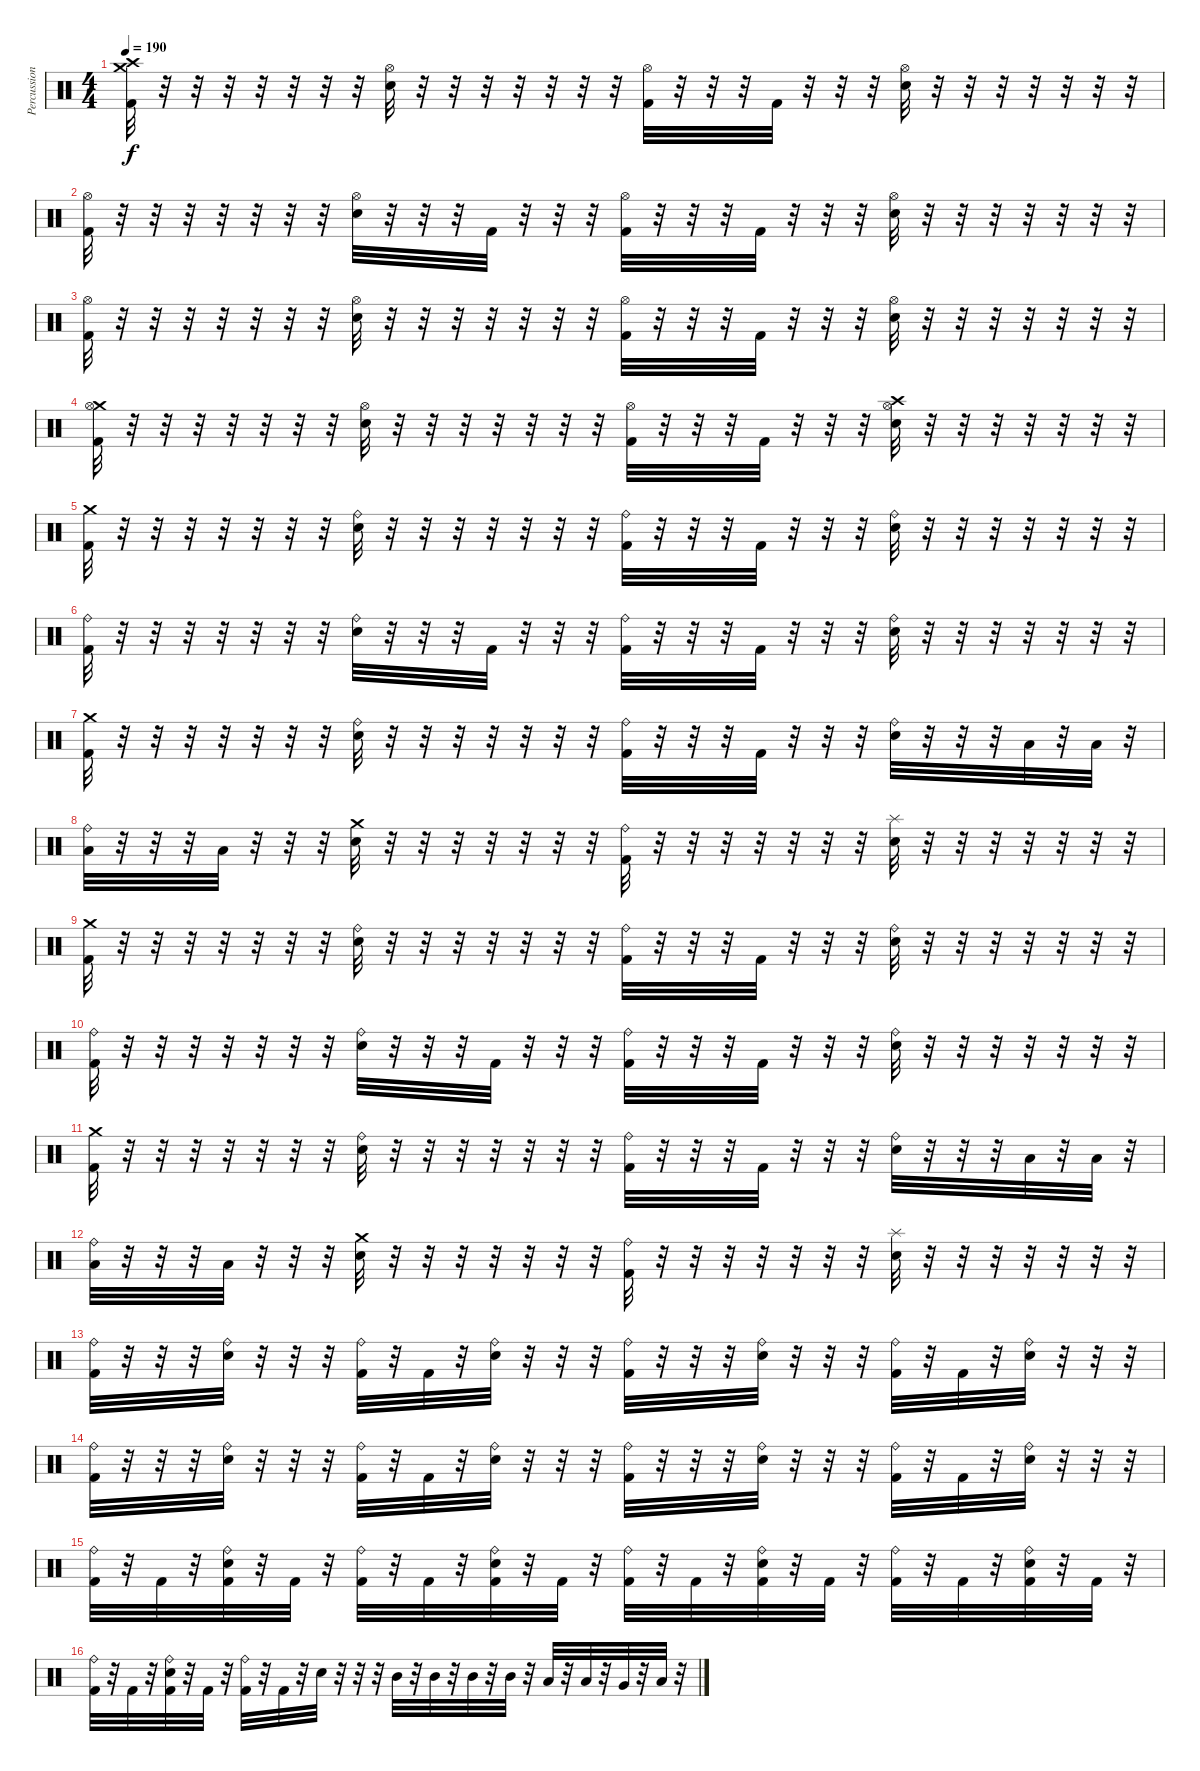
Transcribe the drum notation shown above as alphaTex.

\track ("Percussion" "Percussion") {instrument percussion}
\staff {score}
\articulation defaults
\ts (4 4)
\tempo 190
\clef neutral
\ks c
("Crash medium (hit)" "Crash high (hit)" "Kick (hit) 2").32{dy f} r.32 r.32 r.32 r.32 r.32 r.32 r.32 ("Hi-Hat (open)" "Electric Snare (hit)").32 r.32 r.32 r.32 r.32 r.32 r.32 r.32 ("Hi-Hat (open)" "Kick (hit) 2").32 r.32 r.32 r.32 "Kick (hit) 2".32 r.32 r.32 r.32 ("Hi-Hat (open)" "Electric Snare (hit)").32 r.32 r.32 r.32 r.32 r.32 r.32 r.32 |
("Hi-Hat (open)" "Kick (hit) 2").32 r.32 r.32 r.32 r.32 r.32 r.32 r.32 ("Hi-Hat (open)" "Electric Snare (hit)").32 r.32 r.32 r.32 "Kick (hit) 2".32 r.32 r.32 r.32 ("Hi-Hat (open)" "Kick (hit) 2").32 r.32 r.32 r.32 "Kick (hit) 2".32 r.32 r.32 r.32 ("Hi-Hat (open)" "Electric Snare (hit)").32 r.32 r.32 r.32 r.32 r.32 r.32 r.32 |
("Hi-Hat (open)" "Kick (hit) 2").32 r.32 r.32 r.32 r.32 r.32 r.32 r.32 ("Hi-Hat (open)" "Electric Snare (hit)").32 r.32 r.32 r.32 r.32 r.32 r.32 r.32 ("Hi-Hat (open)" "Kick (hit) 2").32 r.32 r.32 r.32 "Kick (hit) 2".32 r.32 r.32 r.32 ("Hi-Hat (open)" "Electric Snare (hit)").32 r.32 r.32 r.32 r.32 r.32 r.32 r.32 |
("Crash medium (hit)" "Hi-Hat (open)" "Kick (hit) 2").32 r.32 r.32 r.32 r.32 r.32 r.32 r.32 ("Hi-Hat (open)" "Electric Snare (hit)").32 r.32 r.32 r.32 r.32 r.32 r.32 r.32 ("Hi-Hat (open)" "Kick (hit) 2").32 r.32 r.32 r.32 "Kick (hit) 2".32 r.32 r.32 r.32 ("Crash high (hit)" "Hi-Hat (open)" "Electric Snare (hit)").32 r.32 r.32 r.32 r.32 r.32 r.32 r.32 |
("Crash medium (hit)" "Kick (hit) 2").32 r.32 r.32 r.32 r.32 r.32 r.32 r.32 ("Ride (bell)" "Electric Snare (hit)").32 r.32 r.32 r.32 r.32 r.32 r.32 r.32 ("Ride (bell)" "Kick (hit) 2").32 r.32 r.32 r.32 "Kick (hit) 2".32 r.32 r.32 r.32 ("Ride (bell)" "Electric Snare (hit)").32 r.32 r.32 r.32 r.32 r.32 r.32 r.32 |
("Ride (bell)" "Kick (hit) 2").32 r.32 r.32 r.32 r.32 r.32 r.32 r.32 ("Ride (bell)" "Electric Snare (hit)").32 r.32 r.32 r.32 "Kick (hit) 2".32 r.32 r.32 r.32 ("Ride (bell)" "Kick (hit) 2").32 r.32 r.32 r.32 "Kick (hit) 2".32 r.32 r.32 r.32 ("Ride (bell)" "Electric Snare (hit)").32 r.32 r.32 r.32 r.32 r.32 r.32 r.32 |
("Crash medium (hit)" "Kick (hit) 2").32 r.32 r.32 r.32 r.32 r.32 r.32 r.32 ("Ride (bell)" "Electric Snare (hit)").32 r.32 r.32 r.32 r.32 r.32 r.32 r.32 ("Ride (bell)" "Kick (hit) 2").32 r.32 r.32 r.32 "Kick (hit) 2".32 r.32 r.32 r.32 ("Ride (bell)" "Electric Snare (hit)").32 r.32 r.32 r.32 "Low Floor Tom (hit)".32 r.32 "Low Floor Tom (hit)".32 r.32 |
("Ride (bell)" "Low Floor Tom (hit)").32 r.32 r.32 r.32 "Low Floor Tom (hit)".32 r.32 r.32 r.32 ("Crash medium (hit)" "Electric Snare (hit)").32 r.32 r.32 r.32 r.32 r.32 r.32 r.32 ("Ride (bell)" "Kick (hit) 2").32 r.32 r.32 r.32 r.32 r.32 r.32 r.32 ("Splash (hit)" "Electric Snare (hit)").32 r.32 r.32 r.32 r.32 r.32 r.32 r.32 |
("Crash medium (hit)" "Kick (hit) 2").32 r.32 r.32 r.32 r.32 r.32 r.32 r.32 ("Ride (bell)" "Electric Snare (hit)").32 r.32 r.32 r.32 r.32 r.32 r.32 r.32 ("Ride (bell)" "Kick (hit) 2").32 r.32 r.32 r.32 "Kick (hit) 2".32 r.32 r.32 r.32 ("Ride (bell)" "Electric Snare (hit)").32 r.32 r.32 r.32 r.32 r.32 r.32 r.32 |
("Ride (bell)" "Kick (hit) 2").32 r.32 r.32 r.32 r.32 r.32 r.32 r.32 ("Ride (bell)" "Electric Snare (hit)").32 r.32 r.32 r.32 "Kick (hit) 2".32 r.32 r.32 r.32 ("Ride (bell)" "Kick (hit) 2").32 r.32 r.32 r.32 "Kick (hit) 2".32 r.32 r.32 r.32 ("Ride (bell)" "Electric Snare (hit)").32 r.32 r.32 r.32 r.32 r.32 r.32 r.32 |
("Crash medium (hit)" "Kick (hit) 2").32 r.32 r.32 r.32 r.32 r.32 r.32 r.32 ("Ride (bell)" "Electric Snare (hit)").32 r.32 r.32 r.32 r.32 r.32 r.32 r.32 ("Ride (bell)" "Kick (hit) 2").32 r.32 r.32 r.32 "Kick (hit) 2".32 r.32 r.32 r.32 ("Ride (bell)" "Electric Snare (hit)").32 r.32 r.32 r.32 "Low Floor Tom (hit)".32 r.32 "Low Floor Tom (hit)".32 r.32 |
("Ride (bell)" "Low Floor Tom (hit)").32 r.32 r.32 r.32 "Low Floor Tom (hit)".32 r.32 r.32 r.32 ("Crash medium (hit)" "Electric Snare (hit)").32 r.32 r.32 r.32 r.32 r.32 r.32 r.32 ("Ride (bell)" "Kick (hit) 2").32 r.32 r.32 r.32 r.32 r.32 r.32 r.32 ("Splash (hit)" "Electric Snare (hit)").32 r.32 r.32 r.32 r.32 r.32 r.32 r.32 |
("Ride (bell)" "Kick (hit) 2").32 r.32 r.32 r.32 ("Ride (bell)" "Electric Snare (hit)").32 r.32 r.32 r.32 ("Ride (bell)" "Kick (hit) 2").32 r.32 "Kick (hit) 2".32 r.32 ("Ride (bell)" "Electric Snare (hit)").32 r.32 r.32 r.32 ("Ride (bell)" "Kick (hit) 2").32 r.32 r.32 r.32 ("Ride (bell)" "Electric Snare (hit)").32 r.32 r.32 r.32 ("Ride (bell)" "Kick (hit) 2").32 r.32 "Kick (hit) 2".32 r.32 ("Ride (bell)" "Electric Snare (hit)").32 r.32 r.32 r.32 |
("Ride (bell)" "Kick (hit) 2").32 r.32 r.32 r.32 ("Ride (bell)" "Electric Snare (hit)").32 r.32 r.32 r.32 ("Ride (bell)" "Kick (hit) 2").32 r.32 "Kick (hit) 2".32 r.32 ("Ride (bell)" "Electric Snare (hit)").32 r.32 r.32 r.32 ("Ride (bell)" "Kick (hit) 2").32 r.32 r.32 r.32 ("Ride (bell)" "Electric Snare (hit)").32 r.32 r.32 r.32 ("Ride (bell)" "Kick (hit) 2").32 r.32 "Kick (hit) 2".32 r.32 ("Ride (bell)" "Electric Snare (hit)").32 r.32 r.32 r.32 |
("Ride (bell)" "Kick (hit) 2").32 r.32 "Kick (hit) 2".32 r.32 ("Kick (hit) 2" "Ride (bell)" "Electric Snare (hit)").32 r.32 "Kick (hit) 2".32 r.32 ("Ride (bell)" "Kick (hit) 2").32 r.32 "Kick (hit) 2".32 r.32 ("Kick (hit) 2" "Ride (bell)" "Electric Snare (hit)").32 r.32 "Kick (hit) 2".32 r.32 ("Ride (bell)" "Kick (hit) 2").32 r.32 "Kick (hit) 2".32 r.32 ("Kick (hit) 2" "Ride (bell)" "Electric Snare (hit)").32 r.32 "Kick (hit) 2".32 r.32 ("Ride (bell)" "Kick (hit) 2").32 r.32 "Kick (hit) 2".32 r.32 ("Kick (hit) 2" "Ride (bell)" "Electric Snare (hit)").32 r.32 "Kick (hit) 2".32 r.32 |
("Ride (bell)" "Kick (hit) 2").32 r.32 "Kick (hit) 2".32 r.32 ("Kick (hit) 2" "Ride (bell)" "Electric Snare (hit)").32 r.32 "Kick (hit) 2".32 r.32 ("Ride (bell)" "Kick (hit) 2").32 r.32 "Kick (hit) 2".32 r.32 "Electric Snare (hit)".32 r.32 r.32 r.32 "Mid Tom (hit)".32 r.32 "Mid Tom (hit)".32 r.32 "Mid Tom (hit)".32 r.32 "Mid Tom (hit)".32 r.32 "Low Tom (hit)".32 r.32 "Low Tom (hit)".32 r.32 "Very Low Tom (hit)".32 r.32 "Low Floor Tom (hit)".32 r.32
